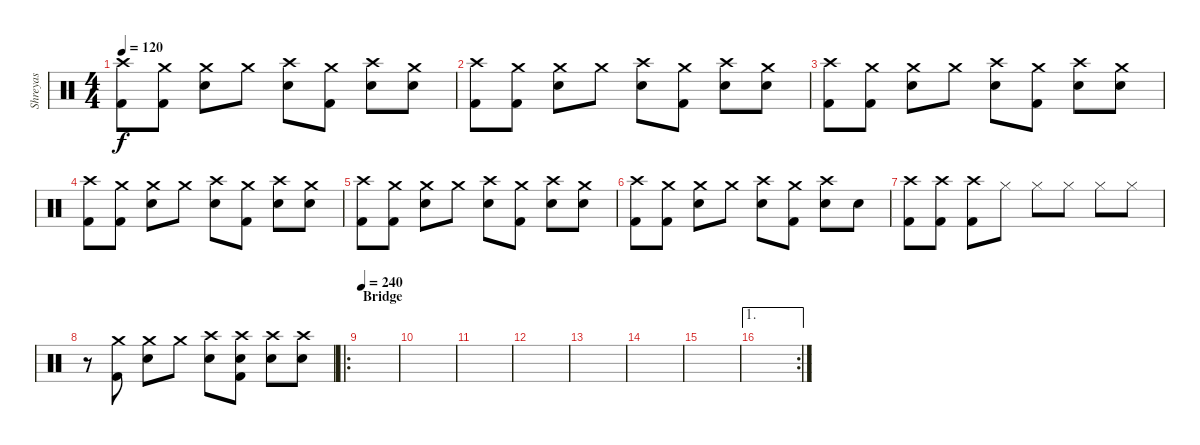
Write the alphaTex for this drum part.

\track ("Shreyas" "Shreyas") {instrument percussion}
\staff {score}
\articulation defaults
\ts (4 4)
\tempo 120
\clef neutral
\ks c
("Kick (hit) 2" "Crash high (hit)").8{dy f} ("Kick (hit) 2" "Crash medium (hit)").8 ("Snare (hit) 2" "Crash medium (hit)").8 "Crash medium (hit)".8 ("Snare (hit) 2" "Crash high (hit)").8 ("Kick (hit) 2" "Crash medium (hit)").8 ("Snare (hit) 2" "Crash high (hit)").8 ("Snare (hit) 2" "Crash medium (hit)").8 |
("Kick (hit) 2" "Crash high (hit)").8 ("Kick (hit) 2" "Crash medium (hit)").8 ("Snare (hit) 2" "Crash medium (hit)").8 "Crash medium (hit)".8 ("Snare (hit) 2" "Crash high (hit)").8 ("Kick (hit) 2" "Crash medium (hit)").8 ("Snare (hit) 2" "Crash high (hit)").8 ("Snare (hit) 2" "Crash medium (hit)").8 |
("Kick (hit) 2" "Crash high (hit)").8 ("Kick (hit) 2" "Crash medium (hit)").8 ("Snare (hit) 2" "Crash medium (hit)").8 "Crash medium (hit)".8 ("Snare (hit) 2" "Crash high (hit)").8 ("Kick (hit) 2" "Crash medium (hit)").8 ("Snare (hit) 2" "Crash high (hit)").8 ("Snare (hit) 2" "Crash medium (hit)").8 |
("Kick (hit) 2" "Crash high (hit)").8 ("Kick (hit) 2" "Crash medium (hit)").8 ("Snare (hit) 2" "Crash medium (hit)").8 "Crash medium (hit)".8 ("Snare (hit) 2" "Crash high (hit)").8 ("Kick (hit) 2" "Crash medium (hit)").8 ("Snare (hit) 2" "Crash high (hit)").8 ("Snare (hit) 2" "Crash medium (hit)").8 |
("Kick (hit) 2" "Crash high (hit)").8 ("Kick (hit) 2" "Crash medium (hit)").8 ("Snare (hit) 2" "Crash medium (hit)").8 "Crash medium (hit)".8 ("Snare (hit) 2" "Crash high (hit)").8 ("Kick (hit) 2" "Crash medium (hit)").8 ("Snare (hit) 2" "Crash high (hit)").8 ("Snare (hit) 2" "Crash medium (hit)").8 |
("Kick (hit) 2" "Crash high (hit)").8 ("Kick (hit) 2" "Crash medium (hit)").8 ("Snare (hit) 2" "Crash medium (hit)").8 "Crash medium (hit)".8 ("Snare (hit) 2" "Crash high (hit)").8 ("Kick (hit) 2" "Crash medium (hit)").8 ("Snare (hit) 2" "Crash high (hit)").8 "Snare (hit) 2".8 |
("Kick (hit) 2" "Crash high (hit)").8 ("Kick (hit) 2" "Crash high (hit)").8 ("Kick (hit) 2" "Crash high (hit)").8 "Hi-Hat (closed)".8 "Hi-Hat (closed)".8 "Hi-Hat (closed)".8 "Hi-Hat (closed)".8 "Hi-Hat (closed)".8 |
r.8 ("Kick (hit) 2" "Crash medium (hit)").8 ("Snare (hit) 2" "Crash medium (hit)").8 "Crash medium (hit)".8 ("Snare (hit) 2" "Crash high (hit)").8 ("Snare (hit) 2" "Kick (hit) 2" "Crash high (hit)").8 ("Snare (hit) 2" "Crash high (hit)").8 ("Snare (hit) 2" "Crash high (hit)").8 |
\ro
\section ("" "Bridge")
\tempo 240
|
|
|
|
|
|
|
\ae 1
\rc 2
